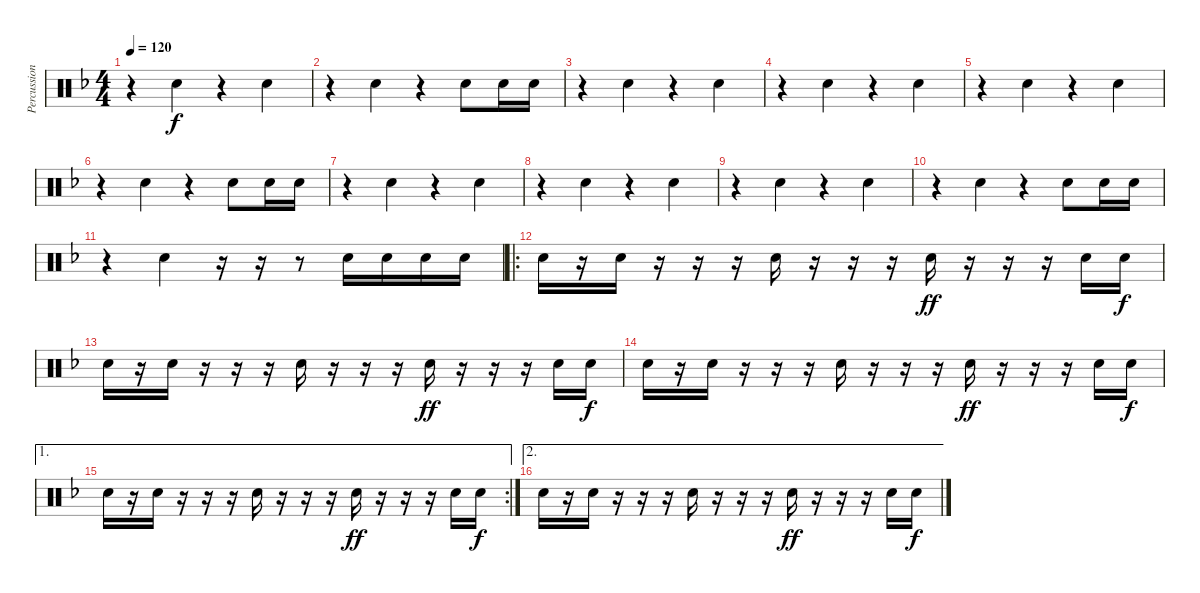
\track ("Percussion" "Percussion") {instrument percussion}
\staff {score}
\articulation defaults
\ts (4 4)
\tempo 120
\clef neutral
\ks f
r.4{dy f} "Electric Snare (hit)".4 r.4 "Electric Snare (hit)".4 |
r.4 "Electric Snare (hit)".4 r.4 "Electric Snare (hit)".8 "Electric Snare (hit)".16 "Electric Snare (hit)".16 |
r.4 "Electric Snare (hit)".4 r.4 "Electric Snare (hit)".4 |
r.4 "Electric Snare (hit)".4 r.4 "Electric Snare (hit)".4 |
r.4 "Electric Snare (hit)".4 r.4 "Electric Snare (hit)".4 |
r.4 "Electric Snare (hit)".4 r.4 "Electric Snare (hit)".8 "Electric Snare (hit)".16 "Electric Snare (hit)".16 |
r.4 "Electric Snare (hit)".4 r.4 "Electric Snare (hit)".4 |
r.4 "Electric Snare (hit)".4 r.4 "Electric Snare (hit)".4 |
r.4 "Electric Snare (hit)".4 r.4 "Electric Snare (hit)".4 |
r.4 "Electric Snare (hit)".4 r.4 "Electric Snare (hit)".8 "Electric Snare (hit)".16 "Electric Snare (hit)".16 |
r.4 "Electric Snare (hit)".4 r.16 r.16 r.8 "Electric Snare (hit)".16 "Electric Snare (hit)".16 "Electric Snare (hit)".16 "Electric Snare (hit)".16 |
\ro "Electric Snare (hit)".16
r.16 "Electric Snare (hit)".16 r.16 r.16 r.16 "Electric Snare (hit)".16 r.16 r.16 r.16 "Electric Snare (hit)".16{dy ff} r.16 r.16 r.16 "Electric Snare (hit)".16 "Electric Snare (hit)".16{dy f} |
"Electric Snare (hit)".16 r.16 "Electric Snare (hit)".16 r.16 r.16 r.16 "Electric Snare (hit)".16 r.16 r.16 r.16 "Electric Snare (hit)".16{dy ff} r.16 r.16 r.16 "Electric Snare (hit)".16 "Electric Snare (hit)".16{dy f} |
"Electric Snare (hit)".16 r.16 "Electric Snare (hit)".16 r.16 r.16 r.16 "Electric Snare (hit)".16 r.16 r.16 r.16 "Electric Snare (hit)".16{dy ff} r.16 r.16 r.16 "Electric Snare (hit)".16 "Electric Snare (hit)".16{dy f} |
\ae 1
\rc 2 "Electric Snare (hit)".16
r.16 "Electric Snare (hit)".16 r.16 r.16 r.16 "Electric Snare (hit)".16 r.16 r.16 r.16 "Electric Snare (hit)".16{dy ff} r.16 r.16 r.16 "Electric Snare (hit)".16 "Electric Snare (hit)".16{dy f} |
\ae 2 "Electric Snare (hit)".16
r.16 "Electric Snare (hit)".16 r.16 r.16 r.16 "Electric Snare (hit)".16 r.16 r.16 r.16 "Electric Snare (hit)".16{dy ff} r.16 r.16 r.16 "Electric Snare (hit)".16 "Electric Snare (hit)".16{dy f}
